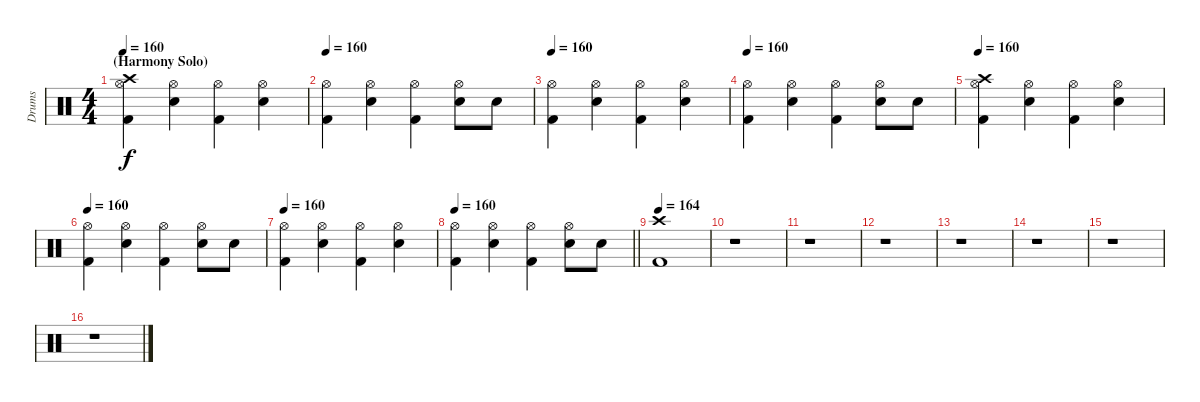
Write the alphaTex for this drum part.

\track ("Drums" "Drums") {instrument percussion}
\staff {score}
\articulation defaults
\ts (4 4)
\section ("" "(Harmony Solo)")
\tempo 160
\clef neutral
\ks c
("Crash high (hit)" "Hi-Hat (open)" "Kick (hit) 2").4{dy f} ("Hi-Hat (open)" "Snare (hit) 2").4 ("Hi-Hat (open)" "Kick (hit) 2").4 ("Hi-Hat (open)" "Snare (hit) 2").4 |
\tempo 160
("Hi-Hat (open)" "Kick (hit) 2").4 ("Hi-Hat (open)" "Snare (hit) 2").4 ("Hi-Hat (open)" "Kick (hit) 2").4 ("Hi-Hat (open)" "Snare (hit) 2").8 "Snare (hit) 2".8 |
\tempo 160
("Hi-Hat (open)" "Kick (hit) 2").4 ("Hi-Hat (open)" "Snare (hit) 2").4 ("Hi-Hat (open)" "Kick (hit) 2").4 ("Hi-Hat (open)" "Snare (hit) 2").4 |
\tempo 160
("Hi-Hat (open)" "Kick (hit) 2").4 ("Hi-Hat (open)" "Snare (hit) 2").4 ("Hi-Hat (open)" "Kick (hit) 2").4 ("Hi-Hat (open)" "Snare (hit) 2").8 "Snare (hit) 2".8 |
\tempo 160
("Crash high (hit)" "Hi-Hat (open)" "Kick (hit) 2").4 ("Hi-Hat (open)" "Snare (hit) 2").4 ("Hi-Hat (open)" "Kick (hit) 2").4 ("Hi-Hat (open)" "Snare (hit) 2").4 |
\tempo 160
("Hi-Hat (open)" "Kick (hit) 2").4 ("Hi-Hat (open)" "Snare (hit) 2").4 ("Hi-Hat (open)" "Kick (hit) 2").4 ("Hi-Hat (open)" "Snare (hit) 2").8 "Snare (hit) 2".8 |
\tempo 160
("Hi-Hat (open)" "Kick (hit) 2").4 ("Hi-Hat (open)" "Snare (hit) 2").4 ("Hi-Hat (open)" "Kick (hit) 2").4 ("Hi-Hat (open)" "Snare (hit) 2").4 |
\tempo 160
\barLineRight lightlight
("Hi-Hat (open)" "Kick (hit) 2").4 ("Hi-Hat (open)" "Snare (hit) 2").4 ("Hi-Hat (open)" "Kick (hit) 2").4 ("Hi-Hat (open)" "Snare (hit) 2").8 "Snare (hit) 2".8 |
\tempo 164
("Crash high (hit)" "Kick (hit) 2").1 |
r.1 |
r.1 |
r.1 |
r.1 |
r.1 |
r.1 |
r.1
